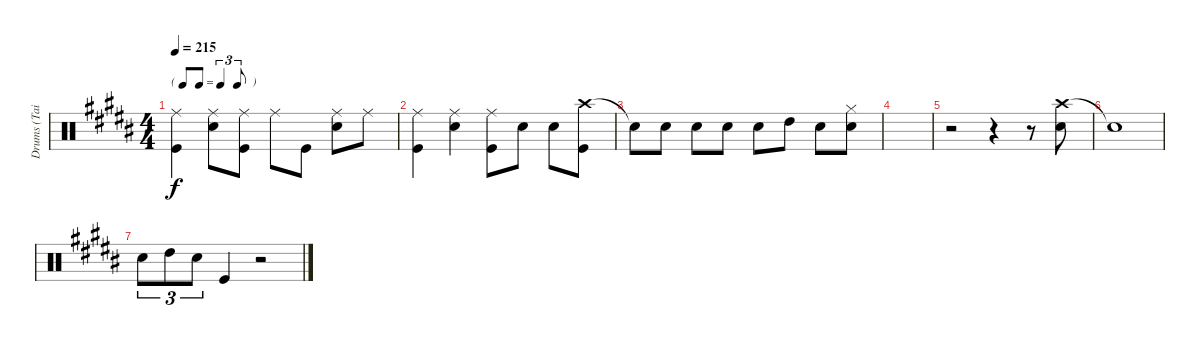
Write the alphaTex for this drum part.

\track ("Drums (Tainaka Ritsu)" "Drums (Tai") {instrument percussion}
\staff {score}
\articulation defaults
\ts (4 4)
\tf triplet8th
\tempo 215
\clef neutral
\ks b
("Ride (middle)" "Kick (hit)").4{dy f} ("Ride (middle)" "Snare (hit) 2").8 ("Ride (middle)" "Kick (hit)").8 "Ride (middle)".8 "Kick (hit)".8 ("Ride (middle)" "Snare (hit) 2").8 "Ride (middle)".8 |
("Ride (middle)" "Kick (hit)").4 ("Ride (middle)" "Snare (hit) 2").4 ("Ride (middle)" "Kick (hit)").8 "Snare (hit) 2".8 "Snare (hit) 2".8 ("Crash high (hit)" "Kick (hit)").8 |
"Snare (hit)"{t}.8 "Snare (hit) 2".8 "Snare (hit) 2".8 "Snare (hit) 2".8 "Snare (hit) 2".8 "High Tom (hit)".8 "Snare (hit) 2".8 ("Hi-Hat (closed)" "Snare (hit) 2").8 |
|
r.2 r.4 r.8 ("Crash high (hit)" "Snare (hit) 2").8 |
"Snare (hit)"{t}.1 |
"Snare (hit) 2".8{tu (3 2)} "High Tom (hit)".8{tu (3 2)} "Snare (hit) 2".8{tu (3 2)} "Kick (hit)".4 r.2
